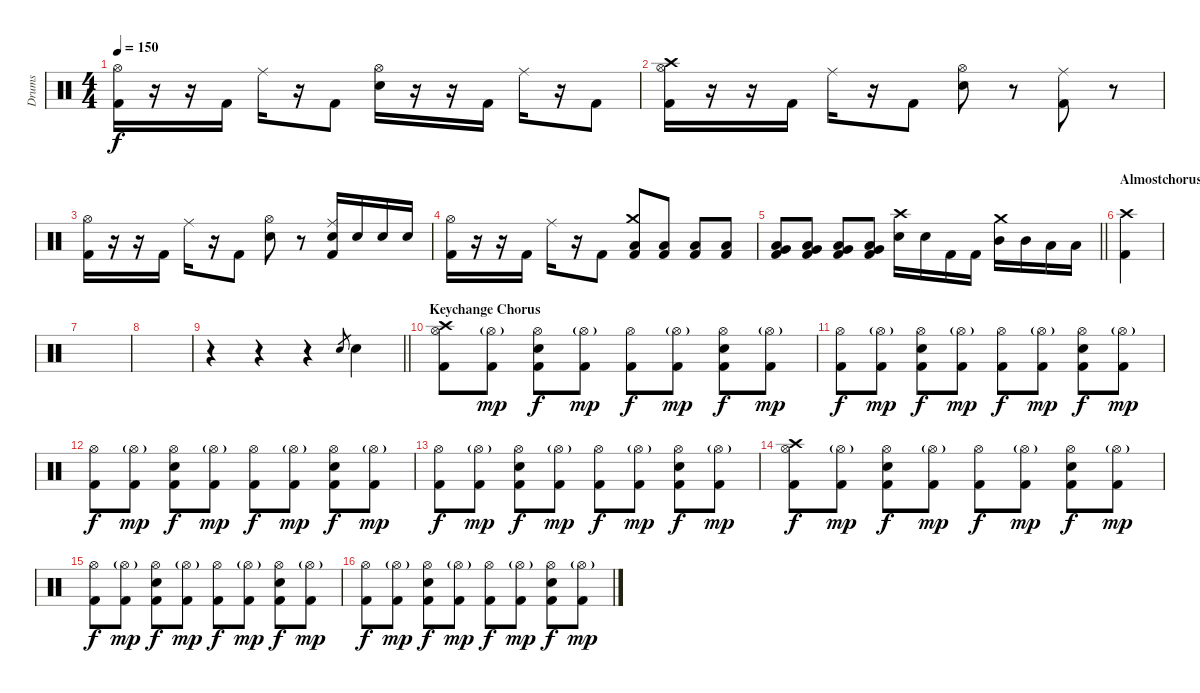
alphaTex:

\track ("Drums" "Drums") {instrument percussion}
\staff {score}
\articulation defaults
\ts (4 4)
\tempo 150
\clef neutral
\ks c
("Hi-Hat (open)" "Kick (hit) 2").16{dy f} r.16 r.16 "Kick (hit) 2".16 "Ride (middle)".16 r.16 "Kick (hit) 2".8 ("Hi-Hat (open)" "Snare (hit) 2").16 r.16 r.16 "Kick (hit) 2".16 "Ride (middle)".16 r.16 "Kick (hit) 2".8 |
("Crash high (hit)" "Hi-Hat (open)" "Kick (hit) 2").16 r.16 r.16 "Kick (hit) 2".16 "Ride (middle)".16 r.16 "Kick (hit) 2".8 ("Hi-Hat (open)" "Snare (hit) 2").8 r.8 ("Ride (middle)" "Kick (hit) 2").8 r.8 |
("Hi-Hat (open)" "Kick (hit) 2").16 r.16 r.16 "Kick (hit) 2".16 "Ride (middle)".16 r.16 "Kick (hit) 2".8 ("Hi-Hat (open)" "Snare (hit) 2").8 r.8 ("Ride (middle)" "Snare (hit) 2" "Kick (hit) 2").16 "Snare (hit) 2".16 "Snare (hit) 2".16 "Snare (hit) 2".16 |
("Hi-Hat (open)" "Kick (hit) 2").16 r.16 r.16 "Kick (hit) 2".16 "Ride (middle)".16 r.16 "Kick (hit) 2".8 ("Crash medium (hit)" "Low Floor Tom (hit)" "Kick (hit) 2").8 ("Low Floor Tom (hit)" "Kick (hit) 2").8 ("Low Floor Tom (hit)" "Kick (hit) 2").8 ("Low Floor Tom (hit)" "Kick (hit) 2").8 |
\barLineRight lightlight
("Very Low Tom (hit)" "Low Floor Tom (hit)" "Kick (hit) 2").8 ("Very Low Tom (hit)" "Low Floor Tom (hit)" "Kick (hit) 2").8 ("Very Low Tom (hit)" "Low Floor Tom (hit)" "Kick (hit) 2").8 ("Very Low Tom (hit)" "Low Floor Tom (hit)" "Kick (hit) 2").8 ("Crash high (hit)" "Snare (hit) 2").16 "Snare (hit) 2".16 "Kick (hit) 2".16 "Kick (hit) 2".16 ("Crash medium (hit)" "Mid Tom (hit)").16 "Mid Tom (hit)".16 "Low Tom (hit)".16 "Low Tom (hit)".16 |
\section ("" "Almostchorus")
("Crash high (hit)" "Kick (hit) 2").4 |
|
|
\barLineRight lightlight
r.4 r.4 r.4 "Snare (hit) 2".8{gr} "Snare (hit) 2".4 |
\section ("" "Keychange Chorus")
("Crash high (hit)" "Hi-Hat (open)" "Kick (hit) 2").8 ("Hi-Hat (open)"{g} "Kick (hit) 2").8{dy mp} ("Hi-Hat (open)" "Snare (hit) 2" "Kick (hit) 2").8{dy f} ("Hi-Hat (open)"{g} "Kick (hit) 2").8{dy mp} ("Hi-Hat (open)" "Kick (hit) 2").8{dy f} ("Hi-Hat (open)"{g} "Kick (hit) 2").8{dy mp} ("Hi-Hat (open)" "Snare (hit) 2" "Kick (hit) 2").8{dy f} ("Hi-Hat (open)"{g} "Kick (hit) 2").8{dy mp} |
("Hi-Hat (open)" "Kick (hit) 2").8{dy f} ("Hi-Hat (open)"{g} "Kick (hit) 2").8{dy mp} ("Hi-Hat (open)" "Snare (hit) 2" "Kick (hit) 2").8{dy f} ("Hi-Hat (open)"{g} "Kick (hit) 2").8{dy mp} ("Hi-Hat (open)" "Kick (hit) 2").8{dy f} ("Hi-Hat (open)"{g} "Kick (hit) 2").8{dy mp} ("Hi-Hat (open)" "Snare (hit) 2" "Kick (hit) 2").8{dy f} ("Hi-Hat (open)"{g} "Kick (hit) 2").8{dy mp} |
("Hi-Hat (open)" "Kick (hit) 2").8{dy f} ("Hi-Hat (open)"{g} "Kick (hit) 2").8{dy mp} ("Hi-Hat (open)" "Snare (hit) 2" "Kick (hit) 2").8{dy f} ("Hi-Hat (open)"{g} "Kick (hit) 2").8{dy mp} ("Hi-Hat (open)" "Kick (hit) 2").8{dy f} ("Hi-Hat (open)"{g} "Kick (hit) 2").8{dy mp} ("Hi-Hat (open)" "Snare (hit) 2" "Kick (hit) 2").8{dy f} ("Hi-Hat (open)"{g} "Kick (hit) 2").8{dy mp} |
("Hi-Hat (open)" "Kick (hit) 2").8{dy f} ("Hi-Hat (open)"{g} "Kick (hit) 2").8{dy mp} ("Hi-Hat (open)" "Snare (hit) 2" "Kick (hit) 2").8{dy f} ("Hi-Hat (open)"{g} "Kick (hit) 2").8{dy mp} ("Hi-Hat (open)" "Kick (hit) 2").8{dy f} ("Hi-Hat (open)"{g} "Kick (hit) 2").8{dy mp} ("Hi-Hat (open)" "Snare (hit) 2" "Kick (hit) 2").8{dy f} ("Hi-Hat (open)"{g} "Kick (hit) 2").8{dy mp} |
("Crash high (hit)" "Hi-Hat (open)" "Kick (hit) 2").8{dy f} ("Hi-Hat (open)"{g} "Kick (hit) 2").8{dy mp} ("Hi-Hat (open)" "Snare (hit) 2" "Kick (hit) 2").8{dy f} ("Hi-Hat (open)"{g} "Kick (hit) 2").8{dy mp} ("Hi-Hat (open)" "Kick (hit) 2").8{dy f} ("Hi-Hat (open)"{g} "Kick (hit) 2").8{dy mp} ("Hi-Hat (open)" "Snare (hit) 2" "Kick (hit) 2").8{dy f} ("Hi-Hat (open)"{g} "Kick (hit) 2").8{dy mp} |
("Hi-Hat (open)" "Kick (hit) 2").8{dy f} ("Hi-Hat (open)"{g} "Kick (hit) 2").8{dy mp} ("Hi-Hat (open)" "Snare (hit) 2" "Kick (hit) 2").8{dy f} ("Hi-Hat (open)"{g} "Kick (hit) 2").8{dy mp} ("Hi-Hat (open)" "Kick (hit) 2").8{dy f} ("Hi-Hat (open)"{g} "Kick (hit) 2").8{dy mp} ("Hi-Hat (open)" "Snare (hit) 2" "Kick (hit) 2").8{dy f} ("Hi-Hat (open)"{g} "Kick (hit) 2").8{dy mp} |
("Hi-Hat (open)" "Kick (hit) 2").8{dy f} ("Hi-Hat (open)"{g} "Kick (hit) 2").8{dy mp} ("Hi-Hat (open)" "Snare (hit) 2" "Kick (hit) 2").8{dy f} ("Hi-Hat (open)"{g} "Kick (hit) 2").8{dy mp} ("Hi-Hat (open)" "Kick (hit) 2").8{dy f} ("Hi-Hat (open)"{g} "Kick (hit) 2").8{dy mp} ("Hi-Hat (open)" "Snare (hit) 2" "Kick (hit) 2").8{dy f} ("Hi-Hat (open)"{g} "Kick (hit) 2").8{dy mp}
